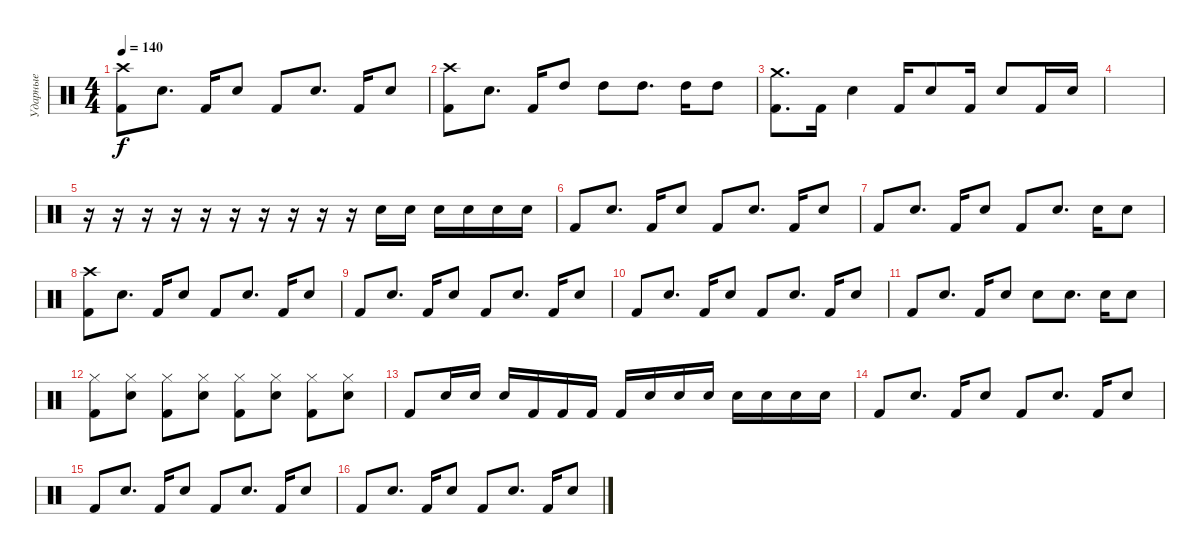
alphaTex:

\track ("Ударные" "Ударные") {instrument percussion}
\staff {score}
\articulation defaults
\ts (4 4)
\tempo 140
\clef neutral
\ks c
("Kick (hit) 2" "Crash high (hit)").8{dy f} "Electric Snare (hit)".8{d} "Kick (hit) 2".16 "Electric Snare (hit)".8 "Kick (hit) 2".8 "Electric Snare (hit)".8{d} "Kick (hit) 2".16 "Electric Snare (hit)".8 |
("Kick (hit) 2" "Crash high (hit)").8 "Electric Snare (hit)".8{d} "Kick (hit) 2".16 "High Tom (hit)".8 "High Tom (hit)".8 "High Tom (hit)".8{d} "High Tom (hit)".16 "High Tom (hit)".8 |
("Crash medium (hit)" "Kick (hit) 2").8{d} "Kick (hit) 2".16 "Electric Snare (hit)".4 "Kick (hit) 2".16 "Electric Snare (hit)".8 "Kick (hit) 2".16 "Electric Snare (hit)".8 "Kick (hit) 2".16 "Electric Snare (hit)".16 |
|
r.16 r.16 r.16 r.16 r.16 r.16 r.16 r.16 r.16 r.16 "Electric Snare (hit)".16 "Electric Snare (hit)".16 "Electric Snare (hit)".16 "Electric Snare (hit)".16 "Electric Snare (hit)".16 "Electric Snare (hit)".16 |
"Kick (hit) 2".8 "Electric Snare (hit)".8{d} "Kick (hit) 2".16 "Electric Snare (hit)".8 "Kick (hit) 2".8 "Electric Snare (hit)".8{d} "Kick (hit) 2".16 "Electric Snare (hit)".8 |
"Kick (hit) 2".8 "Electric Snare (hit)".8{d} "Kick (hit) 2".16 "Electric Snare (hit)".8 "Kick (hit) 2".8 "Electric Snare (hit)".8{d} "Electric Snare (hit)".16 "Electric Snare (hit)".8 |
("Kick (hit) 2" "Crash high (hit)").8 "Electric Snare (hit)".8{d} "Kick (hit) 2".16 "Electric Snare (hit)".8 "Kick (hit) 2".8 "Electric Snare (hit)".8{d} "Kick (hit) 2".16 "Electric Snare (hit)".8 |
"Kick (hit) 2".8 "Electric Snare (hit)".8{d} "Kick (hit) 2".16 "Electric Snare (hit)".8 "Kick (hit) 2".8 "Electric Snare (hit)".8{d} "Kick (hit) 2".16 "Electric Snare (hit)".8 |
"Kick (hit) 2".8 "Electric Snare (hit)".8{d} "Kick (hit) 2".16 "Electric Snare (hit)".8 "Kick (hit) 2".8 "Electric Snare (hit)".8{d} "Kick (hit) 2".16 "Electric Snare (hit)".8 |
"Kick (hit) 2".8 "Electric Snare (hit)".8{d} "Kick (hit) 2".16 "Electric Snare (hit)".8 "Electric Snare (hit)".8 "Electric Snare (hit)".8{d} "Electric Snare (hit)".16 "Electric Snare (hit)".8 |
("Kick (hit) 2" "Hi-Hat (closed)").8 ("Electric Snare (hit)" "Hi-Hat (closed)").8 ("Kick (hit) 2" "Hi-Hat (closed)").8 ("Electric Snare (hit)" "Hi-Hat (closed)").8 ("Kick (hit) 2" "Hi-Hat (closed)").8 ("Electric Snare (hit)" "Hi-Hat (closed)").8 ("Kick (hit) 2" "Hi-Hat (closed)").8 ("Electric Snare (hit)" "Hi-Hat (closed)").8 |
"Kick (hit) 2".8 "Electric Snare (hit)".16 "Electric Snare (hit)".16 "Electric Snare (hit)".16 "Kick (hit) 2".16 "Kick (hit) 2".16 "Kick (hit) 2".16 "Kick (hit) 2".16 "Electric Snare (hit)".16 "Electric Snare (hit)".16 "Electric Snare (hit)".16 "Electric Snare (hit)".16 "Electric Snare (hit)".16 "Electric Snare (hit)".16 "Electric Snare (hit)".16 |
"Kick (hit) 2".8 "Electric Snare (hit)".8{d} "Kick (hit) 2".16 "Electric Snare (hit)".8 "Kick (hit) 2".8 "Electric Snare (hit)".8{d} "Kick (hit) 2".16 "Electric Snare (hit)".8 |
"Kick (hit) 2".8 "Electric Snare (hit)".8{d} "Kick (hit) 2".16 "Electric Snare (hit)".8 "Kick (hit) 2".8 "Electric Snare (hit)".8{d} "Kick (hit) 2".16 "Electric Snare (hit)".8 |
"Kick (hit) 2".8 "Electric Snare (hit)".8{d} "Kick (hit) 2".16 "Electric Snare (hit)".8 "Kick (hit) 2".8 "Electric Snare (hit)".8{d} "Kick (hit) 2".16 "Electric Snare (hit)".8
